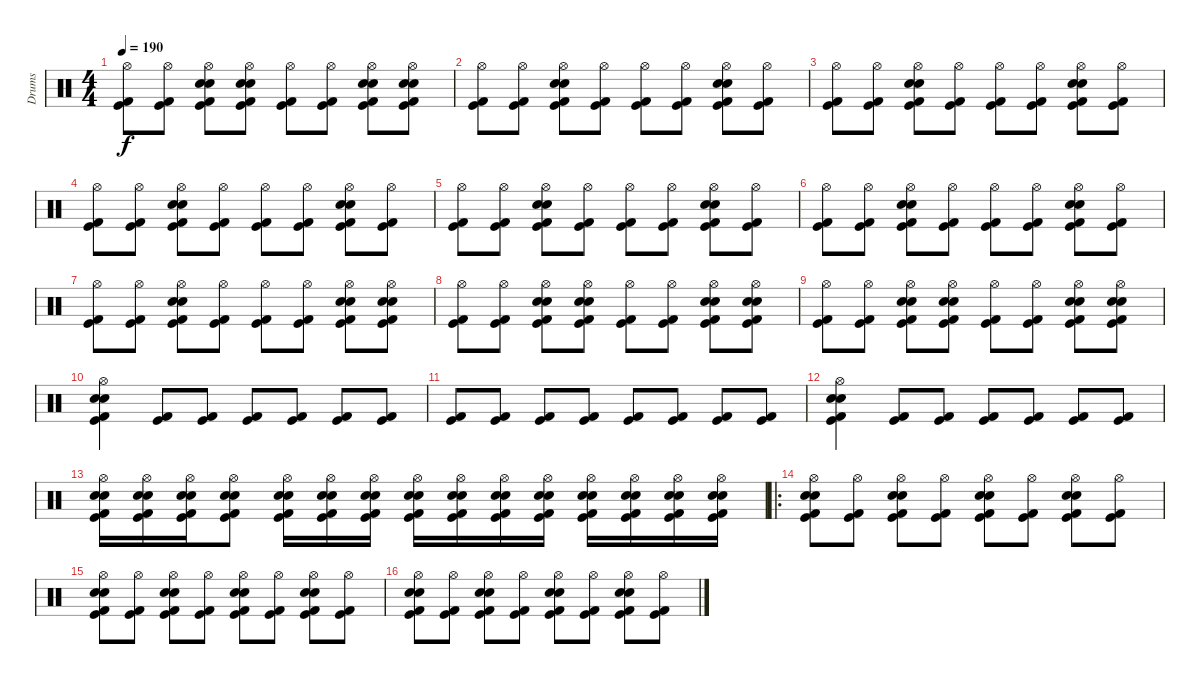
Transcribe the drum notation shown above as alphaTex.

\track ("Drums" "Drums") {instrument percussion}
\staff {score}
\articulation defaults
\ts (4 4)
\tempo 190
\clef neutral
\ks c
("Hi-Hat (open)" "Kick (hit) 2" "Kick (hit)").8{dy f} ("Hi-Hat (open)" "Kick (hit) 2" "Kick (hit)").8 ("Hi-Hat (open)" "Electric Snare (hit)" "Kick (hit)" "Kick (hit) 2" "Snare (hit) 2").8 ("Snare (hit) 2" "Electric Snare (hit)" "Hi-Hat (open)" "Kick (hit) 2" "Kick (hit)").8 ("Hi-Hat (open)" "Kick (hit) 2" "Kick (hit)").8 ("Hi-Hat (open)" "Kick (hit) 2" "Kick (hit)").8 ("Hi-Hat (open)" "Electric Snare (hit)" "Kick (hit)" "Kick (hit) 2" "Snare (hit) 2").8 ("Snare (hit) 2" "Electric Snare (hit)" "Hi-Hat (open)" "Kick (hit) 2" "Kick (hit)").8 |
("Hi-Hat (open)" "Kick (hit) 2" "Kick (hit)").8 ("Hi-Hat (open)" "Kick (hit) 2" "Kick (hit)").8 ("Hi-Hat (open)" "Electric Snare (hit)" "Kick (hit)" "Kick (hit) 2" "Snare (hit) 2").8 ("Hi-Hat (open)" "Kick (hit) 2" "Kick (hit)").8 ("Hi-Hat (open)" "Kick (hit) 2" "Kick (hit)").8 ("Hi-Hat (open)" "Kick (hit) 2" "Kick (hit)").8 ("Hi-Hat (open)" "Electric Snare (hit)" "Kick (hit)" "Kick (hit) 2" "Snare (hit) 2").8 ("Hi-Hat (open)" "Kick (hit) 2" "Kick (hit)").8 |
("Hi-Hat (open)" "Kick (hit) 2" "Kick (hit)").8 ("Hi-Hat (open)" "Kick (hit) 2" "Kick (hit)").8 ("Hi-Hat (open)" "Electric Snare (hit)" "Kick (hit)" "Kick (hit) 2" "Snare (hit) 2").8 ("Hi-Hat (open)" "Kick (hit) 2" "Kick (hit)").8 ("Hi-Hat (open)" "Kick (hit) 2" "Kick (hit)").8 ("Hi-Hat (open)" "Kick (hit) 2" "Kick (hit)").8 ("Hi-Hat (open)" "Electric Snare (hit)" "Kick (hit)" "Kick (hit) 2" "Snare (hit) 2").8 ("Hi-Hat (open)" "Kick (hit) 2" "Kick (hit)").8 |
("Hi-Hat (open)" "Kick (hit) 2" "Kick (hit)").8 ("Hi-Hat (open)" "Kick (hit) 2" "Kick (hit)").8 ("Hi-Hat (open)" "Electric Snare (hit)" "Kick (hit)" "Kick (hit) 2" "Snare (hit) 2").8 ("Hi-Hat (open)" "Kick (hit) 2" "Kick (hit)").8 ("Hi-Hat (open)" "Kick (hit) 2" "Kick (hit)").8 ("Hi-Hat (open)" "Kick (hit) 2" "Kick (hit)").8 ("Hi-Hat (open)" "Electric Snare (hit)" "Kick (hit)" "Kick (hit) 2" "Snare (hit) 2").8 ("Hi-Hat (open)" "Kick (hit) 2" "Kick (hit)").8 |
("Hi-Hat (open)" "Kick (hit) 2" "Kick (hit)").8 ("Hi-Hat (open)" "Kick (hit) 2" "Kick (hit)").8 ("Hi-Hat (open)" "Electric Snare (hit)" "Kick (hit)" "Kick (hit) 2" "Snare (hit) 2").8 ("Hi-Hat (open)" "Kick (hit) 2" "Kick (hit)").8 ("Hi-Hat (open)" "Kick (hit) 2" "Kick (hit)").8 ("Hi-Hat (open)" "Kick (hit) 2" "Kick (hit)").8 ("Hi-Hat (open)" "Electric Snare (hit)" "Kick (hit)" "Kick (hit) 2" "Snare (hit) 2").8 ("Hi-Hat (open)" "Kick (hit) 2" "Kick (hit)").8 |
("Hi-Hat (open)" "Kick (hit) 2" "Kick (hit)").8 ("Hi-Hat (open)" "Kick (hit) 2" "Kick (hit)").8 ("Hi-Hat (open)" "Electric Snare (hit)" "Kick (hit)" "Kick (hit) 2" "Snare (hit) 2").8 ("Hi-Hat (open)" "Kick (hit) 2" "Kick (hit)").8 ("Hi-Hat (open)" "Kick (hit) 2" "Kick (hit)").8 ("Hi-Hat (open)" "Kick (hit) 2" "Kick (hit)").8 ("Hi-Hat (open)" "Electric Snare (hit)" "Kick (hit)" "Kick (hit) 2" "Snare (hit) 2").8 ("Hi-Hat (open)" "Kick (hit) 2" "Kick (hit)").8 |
("Hi-Hat (open)" "Kick (hit) 2" "Kick (hit)").8 ("Hi-Hat (open)" "Kick (hit) 2" "Kick (hit)").8 ("Hi-Hat (open)" "Electric Snare (hit)" "Kick (hit)" "Kick (hit) 2" "Snare (hit) 2").8 ("Hi-Hat (open)" "Kick (hit) 2" "Kick (hit)").8 ("Hi-Hat (open)" "Kick (hit) 2" "Kick (hit)").8 ("Hi-Hat (open)" "Kick (hit) 2" "Kick (hit)").8 ("Hi-Hat (open)" "Electric Snare (hit)" "Kick (hit)" "Kick (hit) 2" "Snare (hit) 2").8 ("Snare (hit) 2" "Electric Snare (hit)" "Hi-Hat (open)" "Kick (hit) 2" "Kick (hit)").8 |
("Hi-Hat (open)" "Kick (hit) 2" "Kick (hit)").8 ("Hi-Hat (open)" "Kick (hit) 2" "Kick (hit)").8 ("Hi-Hat (open)" "Electric Snare (hit)" "Kick (hit)" "Kick (hit) 2" "Snare (hit) 2").8 ("Snare (hit) 2" "Electric Snare (hit)" "Hi-Hat (open)" "Kick (hit) 2" "Kick (hit)").8 ("Hi-Hat (open)" "Kick (hit) 2" "Kick (hit)").8 ("Hi-Hat (open)" "Kick (hit) 2" "Kick (hit)").8 ("Hi-Hat (open)" "Electric Snare (hit)" "Kick (hit)" "Kick (hit) 2" "Snare (hit) 2").8 ("Snare (hit) 2" "Electric Snare (hit)" "Hi-Hat (open)" "Kick (hit) 2" "Kick (hit)").8 |
("Hi-Hat (open)" "Kick (hit) 2" "Kick (hit)").8 ("Hi-Hat (open)" "Kick (hit) 2" "Kick (hit)").8 ("Hi-Hat (open)" "Electric Snare (hit)" "Kick (hit)" "Kick (hit) 2" "Snare (hit) 2").8 ("Snare (hit) 2" "Electric Snare (hit)" "Hi-Hat (open)" "Kick (hit) 2" "Kick (hit)").8 ("Hi-Hat (open)" "Kick (hit) 2" "Kick (hit)").8 ("Hi-Hat (open)" "Kick (hit) 2" "Kick (hit)").8 ("Hi-Hat (open)" "Electric Snare (hit)" "Kick (hit)" "Kick (hit) 2" "Snare (hit) 2").8 ("Snare (hit) 2" "Electric Snare (hit)" "Hi-Hat (open)" "Kick (hit) 2" "Kick (hit)").8 |
("Snare (hit) 2" "Electric Snare (hit)" "Hi-Hat (open)" "Kick (hit) 2" "Kick (hit)").4 ("Kick (hit) 2" "Kick (hit)").8 ("Kick (hit) 2" "Kick (hit)").8 ("Kick (hit) 2" "Kick (hit)").8 ("Kick (hit) 2" "Kick (hit)").8 ("Kick (hit) 2" "Kick (hit)").8 ("Kick (hit) 2" "Kick (hit)").8 |
("Kick (hit) 2" "Kick (hit)").8 ("Kick (hit) 2" "Kick (hit)").8 ("Kick (hit) 2" "Kick (hit)").8 ("Kick (hit) 2" "Kick (hit)").8 ("Kick (hit) 2" "Kick (hit)").8 ("Kick (hit) 2" "Kick (hit)").8 ("Kick (hit) 2" "Kick (hit)").8 ("Kick (hit) 2" "Kick (hit)").8 |
("Snare (hit) 2" "Electric Snare (hit)" "Hi-Hat (open)" "Kick (hit) 2" "Kick (hit)").4 ("Kick (hit) 2" "Kick (hit)").8 ("Kick (hit) 2" "Kick (hit)").8 ("Kick (hit) 2" "Kick (hit)").8 ("Kick (hit) 2" "Kick (hit)").8 ("Kick (hit) 2" "Kick (hit)").8 ("Kick (hit) 2" "Kick (hit)").8 |
("Hi-Hat (open)" "Electric Snare (hit)" "Snare (hit) 2" "Kick (hit) 2" "Kick (hit)").16 ("Hi-Hat (open)" "Electric Snare (hit)" "Snare (hit) 2" "Kick (hit) 2" "Kick (hit)").16 ("Hi-Hat (open)" "Electric Snare (hit)" "Snare (hit) 2" "Kick (hit) 2" "Kick (hit)").16 ("Hi-Hat (open)" "Electric Snare (hit)" "Snare (hit) 2" "Kick (hit) 2" "Kick (hit)").8 ("Hi-Hat (open)" "Electric Snare (hit)" "Snare (hit) 2" "Kick (hit) 2" "Kick (hit)").16 ("Hi-Hat (open)" "Electric Snare (hit)" "Snare (hit) 2" "Kick (hit) 2" "Kick (hit)").16 ("Hi-Hat (open)" "Electric Snare (hit)" "Snare (hit) 2" "Kick (hit) 2" "Kick (hit)").16 ("Hi-Hat (open)" "Electric Snare (hit)" "Snare (hit) 2" "Kick (hit) 2" "Kick (hit)").16 ("Hi-Hat (open)" "Electric Snare (hit)" "Snare (hit) 2" "Kick (hit) 2" "Kick (hit)").16 ("Hi-Hat (open)" "Electric Snare (hit)" "Snare (hit) 2" "Kick (hit) 2" "Kick (hit)").16 ("Hi-Hat (open)" "Electric Snare (hit)" "Snare (hit) 2" "Kick (hit) 2" "Kick (hit)").16 ("Hi-Hat (open)" "Electric Snare (hit)" "Snare (hit) 2" "Kick (hit) 2" "Kick (hit)").16 ("Hi-Hat (open)" "Electric Snare (hit)" "Snare (hit) 2" "Kick (hit) 2" "Kick (hit)").16 ("Hi-Hat (open)" "Electric Snare (hit)" "Snare (hit) 2" "Kick (hit) 2" "Kick (hit)").16 ("Hi-Hat (open)" "Electric Snare (hit)" "Snare (hit) 2" "Kick (hit) 2" "Kick (hit)").16 |
\ro
("Hi-Hat (open)" "Kick (hit) 2" "Snare (hit) 2" "Electric Snare (hit)" "Kick (hit)").8 ("Hi-Hat (open)" "Kick (hit) 2" "Kick (hit)").8 ("Snare (hit) 2" "Hi-Hat (open)" "Electric Snare (hit)" "Kick (hit)" "Kick (hit) 2").8 ("Hi-Hat (open)" "Kick (hit) 2" "Kick (hit)").8 ("Snare (hit) 2" "Hi-Hat (open)" "Electric Snare (hit)" "Kick (hit)" "Kick (hit) 2").8 ("Hi-Hat (open)" "Kick (hit) 2" "Kick (hit)").8 ("Snare (hit) 2" "Hi-Hat (open)" "Electric Snare (hit)" "Kick (hit)" "Kick (hit) 2").8 ("Hi-Hat (open)" "Kick (hit) 2" "Kick (hit)").8 |
("Hi-Hat (open)" "Kick (hit) 2" "Snare (hit) 2" "Electric Snare (hit)" "Kick (hit)").8 ("Hi-Hat (open)" "Kick (hit) 2" "Kick (hit)").8 ("Snare (hit) 2" "Hi-Hat (open)" "Electric Snare (hit)" "Kick (hit)" "Kick (hit) 2").8 ("Hi-Hat (open)" "Kick (hit) 2" "Kick (hit)").8 ("Snare (hit) 2" "Hi-Hat (open)" "Electric Snare (hit)" "Kick (hit)" "Kick (hit) 2").8 ("Hi-Hat (open)" "Kick (hit) 2" "Kick (hit)").8 ("Snare (hit) 2" "Hi-Hat (open)" "Electric Snare (hit)" "Kick (hit)" "Kick (hit) 2").8 ("Hi-Hat (open)" "Kick (hit) 2" "Kick (hit)").8 |
("Hi-Hat (open)" "Kick (hit) 2" "Snare (hit) 2" "Electric Snare (hit)" "Kick (hit)").8 ("Hi-Hat (open)" "Kick (hit) 2" "Kick (hit)").8 ("Snare (hit) 2" "Hi-Hat (open)" "Electric Snare (hit)" "Kick (hit)" "Kick (hit) 2").8 ("Hi-Hat (open)" "Kick (hit) 2" "Kick (hit)").8 ("Snare (hit) 2" "Hi-Hat (open)" "Electric Snare (hit)" "Kick (hit)" "Kick (hit) 2").8 ("Hi-Hat (open)" "Kick (hit) 2" "Kick (hit)").8 ("Snare (hit) 2" "Hi-Hat (open)" "Electric Snare (hit)" "Kick (hit)" "Kick (hit) 2").8 ("Hi-Hat (open)" "Kick (hit) 2" "Kick (hit)").8
